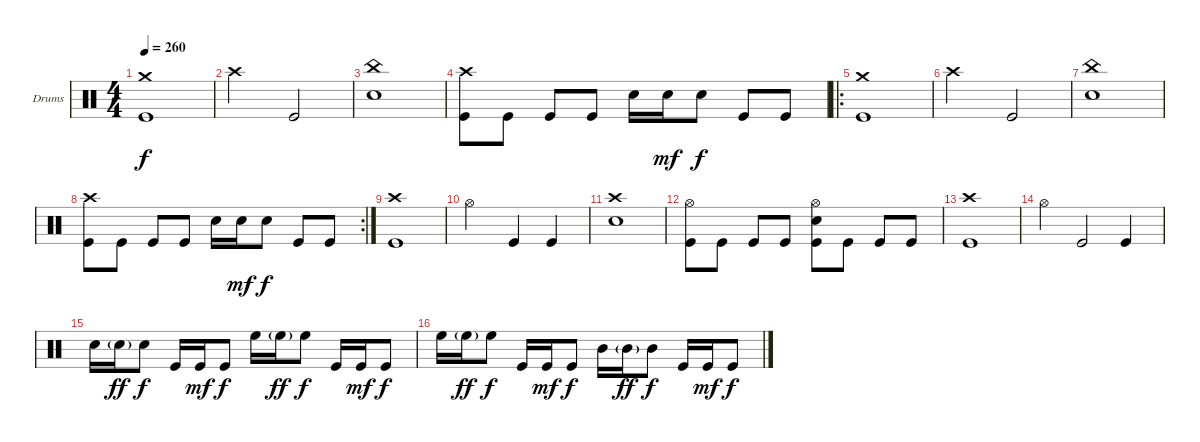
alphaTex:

\bracketExtendMode groupsimilarinstruments
\firstSystemTrackNameOrientation horizontal
\otherSystemsTrackNameOrientation horizontal
\track ("Drumkit" "Drums") {instrument percussion}
\staff {score}
\articulation defaults
\ts (4 4)
\tempo 260
\clef neutral
\ks c
("Crash medium (hit)" "Kick (hit)").1{dy f} |
"Crash high (hit)".2 "Kick (hit)".2 |
("China (hit)" "Snare (hit) 2").1 |
("Crash high (hit)" "Kick (hit)").8 "Kick (hit)".8 "Kick (hit)".8 "Kick (hit)".8 "Snare (hit) 2".16 "Snare (hit) 2".16{dy mf} "Snare (hit) 2".8{dy f} "Kick (hit)".8 "Kick (hit)".8 |
\ro
("Crash medium (hit)" "Kick (hit)").1 |
"Crash high (hit)".2 "Kick (hit)".2 |
("China (hit)" "Snare (hit) 2").1 |
\rc 2
("Crash high (hit)" "Kick (hit)").8 "Kick (hit)".8 "Kick (hit)".8 "Kick (hit)".8 "Snare (hit) 2".16 "Snare (hit) 2".16{dy mf} "Snare (hit) 2".8{dy f} "Kick (hit)".8 "Kick (hit)".8 |
("Crash high (hit)" "Kick (hit)").1 |
"Hi-Hat (open)".2 "Kick (hit)".4 "Kick (hit)".4 |
("Crash high (hit)" "Snare (hit) 2").1 |
("Hi-Hat (open)" "Kick (hit)").8 "Kick (hit)".8 "Kick (hit)".8 "Kick (hit)".8 ("Hi-Hat (open)" "Snare (hit) 2" "Kick (hit)").8 "Kick (hit)".8 "Kick (hit)".8 "Kick (hit)".8 |
("Crash high (hit)" "Kick (hit)").1 |
"Hi-Hat (open)".4 "Kick (hit)".2 "Kick (hit)".4 |
"Snare (hit) 2".16 "Snare (hit) 2"{g}.16{dy ff} "Snare (hit) 2".8{dy f} "Kick (hit)".16 "Kick (hit)".16{dy mf} "Kick (hit)".8{dy f} "High Floor Tom (hit)".16 "High Floor Tom (hit)"{g}.16{dy ff} "High Floor Tom (hit)".8{dy f} "Kick (hit)".16 "Kick (hit)".16{dy mf} "Kick (hit)".8{dy f} |
"High Floor Tom (hit)".16 "High Floor Tom (hit)"{g}.16{dy ff} "High Floor Tom (hit)".8{dy f} "Kick (hit)".16 "Kick (hit)".16{dy mf} "Kick (hit)".8{dy f} "Mid Tom (hit)".16 "Mid Tom (hit)"{g}.16{dy ff} "Mid Tom (hit)".8{dy f} "Kick (hit)".16 "Kick (hit)".16{dy mf} "Kick (hit)".8{dy f}
